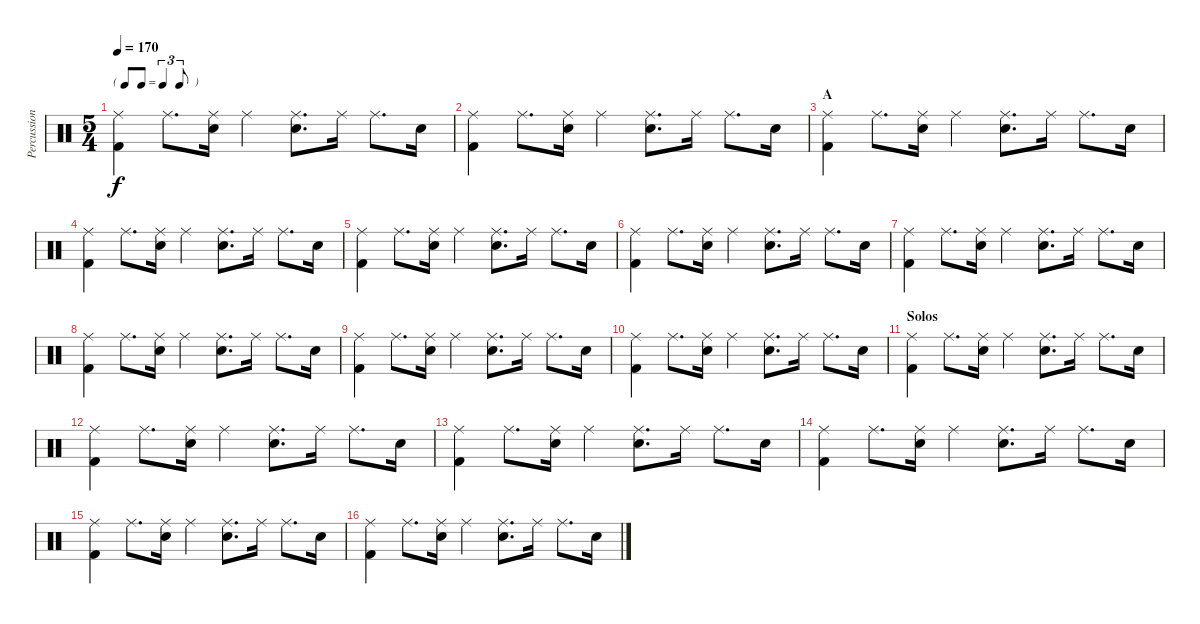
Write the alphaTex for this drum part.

\track ("Percussion" "Percussion") {instrument percussion}
\staff {score}
\articulation defaults
\ts (5 4)
\tf triplet8th
\tempo 170
\clef neutral
\ks c
("Ride (middle)" "Kick (hit) 2").4{dy f} "Ride (middle)".8{d} ("Ride (middle)" "Electric Snare (hit)").16 "Ride (middle)".4 ("Ride (middle)" "Electric Snare (hit)").8{d} "Ride (middle)".16 "Ride (middle)".8{d} "Electric Snare (hit)".16 |
("Ride (middle)" "Kick (hit) 2").4 "Ride (middle)".8{d} ("Ride (middle)" "Electric Snare (hit)").16 "Ride (middle)".4 ("Ride (middle)" "Electric Snare (hit)").8{d} "Ride (middle)".16 "Ride (middle)".8{d} "Electric Snare (hit)".16 |
\section ("" "A")
("Ride (middle)" "Kick (hit) 2").4 "Ride (middle)".8{d} ("Ride (middle)" "Electric Snare (hit)").16 "Ride (middle)".4 ("Ride (middle)" "Electric Snare (hit)").8{d} "Ride (middle)".16 "Ride (middle)".8{d} "Electric Snare (hit)".16 |
("Ride (middle)" "Kick (hit) 2").4 "Ride (middle)".8{d} ("Ride (middle)" "Electric Snare (hit)").16 "Ride (middle)".4 ("Ride (middle)" "Electric Snare (hit)").8{d} "Ride (middle)".16 "Ride (middle)".8{d} "Electric Snare (hit)".16 |
("Ride (middle)" "Kick (hit) 2").4 "Ride (middle)".8{d} ("Ride (middle)" "Electric Snare (hit)").16 "Ride (middle)".4 ("Ride (middle)" "Electric Snare (hit)").8{d} "Ride (middle)".16 "Ride (middle)".8{d} "Electric Snare (hit)".16 |
("Ride (middle)" "Kick (hit) 2").4 "Ride (middle)".8{d} ("Ride (middle)" "Electric Snare (hit)").16 "Ride (middle)".4 ("Ride (middle)" "Electric Snare (hit)").8{d} "Ride (middle)".16 "Ride (middle)".8{d} "Electric Snare (hit)".16 |
("Ride (middle)" "Kick (hit) 2").4 "Ride (middle)".8{d} ("Ride (middle)" "Electric Snare (hit)").16 "Ride (middle)".4 ("Ride (middle)" "Electric Snare (hit)").8{d} "Ride (middle)".16 "Ride (middle)".8{d} "Electric Snare (hit)".16 |
("Ride (middle)" "Kick (hit) 2").4 "Ride (middle)".8{d} ("Ride (middle)" "Electric Snare (hit)").16 "Ride (middle)".4 ("Ride (middle)" "Electric Snare (hit)").8{d} "Ride (middle)".16 "Ride (middle)".8{d} "Electric Snare (hit)".16 |
("Ride (middle)" "Kick (hit) 2").4 "Ride (middle)".8{d} ("Ride (middle)" "Electric Snare (hit)").16 "Ride (middle)".4 ("Ride (middle)" "Electric Snare (hit)").8{d} "Ride (middle)".16 "Ride (middle)".8{d} "Electric Snare (hit)".16 |
("Ride (middle)" "Kick (hit) 2").4 "Ride (middle)".8{d} ("Ride (middle)" "Electric Snare (hit)").16 "Ride (middle)".4 ("Ride (middle)" "Electric Snare (hit)").8{d} "Ride (middle)".16 "Ride (middle)".8{d} "Electric Snare (hit)".16 |
\section ("" "Solos")
("Ride (middle)" "Kick (hit) 2").4 "Ride (middle)".8{d} ("Ride (middle)" "Electric Snare (hit)").16 "Ride (middle)".4 ("Ride (middle)" "Electric Snare (hit)").8{d} "Ride (middle)".16 "Ride (middle)".8{d} "Electric Snare (hit)".16 |
("Ride (middle)" "Kick (hit) 2").4 "Ride (middle)".8{d} ("Ride (middle)" "Electric Snare (hit)").16 "Ride (middle)".4 ("Ride (middle)" "Electric Snare (hit)").8{d} "Ride (middle)".16 "Ride (middle)".8{d} "Electric Snare (hit)".16 |
("Ride (middle)" "Kick (hit) 2").4 "Ride (middle)".8{d} ("Ride (middle)" "Electric Snare (hit)").16 "Ride (middle)".4 ("Ride (middle)" "Electric Snare (hit)").8{d} "Ride (middle)".16 "Ride (middle)".8{d} "Electric Snare (hit)".16 |
("Ride (middle)" "Kick (hit) 2").4 "Ride (middle)".8{d} ("Ride (middle)" "Electric Snare (hit)").16 "Ride (middle)".4 ("Ride (middle)" "Electric Snare (hit)").8{d} "Ride (middle)".16 "Ride (middle)".8{d} "Electric Snare (hit)".16 |
("Ride (middle)" "Kick (hit) 2").4 "Ride (middle)".8{d} ("Ride (middle)" "Electric Snare (hit)").16 "Ride (middle)".4 ("Ride (middle)" "Electric Snare (hit)").8{d} "Ride (middle)".16 "Ride (middle)".8{d} "Electric Snare (hit)".16 |
("Ride (middle)" "Kick (hit) 2").4 "Ride (middle)".8{d} ("Ride (middle)" "Electric Snare (hit)").16 "Ride (middle)".4 ("Ride (middle)" "Electric Snare (hit)").8{d} "Ride (middle)".16 "Ride (middle)".8{d} "Electric Snare (hit)".16
